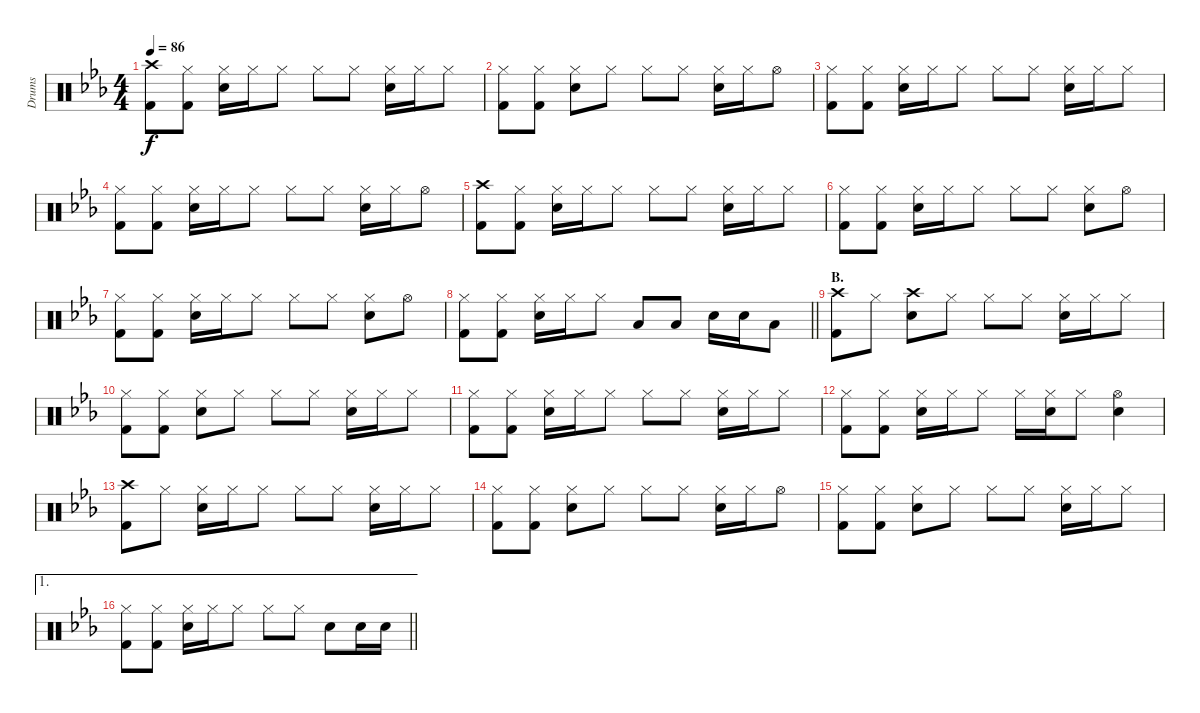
\track ("Drums" "Drums") {instrument percussion}
\staff {score}
\articulation defaults
\ts (4 4)
\tempo 86
\clef neutral
\ks eb
("Crash high (hit)" "Kick (hit) 2").8{dy f} ("Hi-Hat (closed)" "Kick (hit) 2").8 ("Hi-Hat (closed)" "Snare (hit) 2").16 "Hi-Hat (closed)".16 "Hi-Hat (closed)".8 "Hi-Hat (closed)".8 "Hi-Hat (closed)".8 ("Hi-Hat (closed)" "Snare (hit) 2").16 "Hi-Hat (closed)".16 "Hi-Hat (closed)".8 |
("Hi-Hat (closed)" "Kick (hit) 2").8 ("Hi-Hat (closed)" "Kick (hit) 2").8 ("Hi-Hat (closed)" "Snare (hit) 2").8 "Hi-Hat (closed)".8 "Hi-Hat (closed)".8 "Hi-Hat (closed)".8 ("Hi-Hat (closed)" "Snare (hit) 2").16 "Hi-Hat (closed)".16 "Hi-Hat (open)".8 |
("Hi-Hat (closed)" "Kick (hit) 2").8 ("Hi-Hat (closed)" "Kick (hit) 2").8 ("Hi-Hat (closed)" "Snare (hit) 2").16 "Hi-Hat (closed)".16 "Hi-Hat (closed)".8 "Hi-Hat (closed)".8 "Hi-Hat (closed)".8 ("Hi-Hat (closed)" "Snare (hit) 2").16 "Hi-Hat (closed)".16 "Hi-Hat (closed)".8 |
("Hi-Hat (closed)" "Kick (hit) 2").8 ("Hi-Hat (closed)" "Kick (hit) 2").8 ("Hi-Hat (closed)" "Snare (hit) 2").16 "Hi-Hat (closed)".16 "Hi-Hat (closed)".8 "Hi-Hat (closed)".8 "Hi-Hat (closed)".8 ("Hi-Hat (closed)" "Snare (hit) 2").16 "Hi-Hat (closed)".16 "Hi-Hat (open)".8 |
("Crash high (hit)" "Kick (hit) 2").8 ("Hi-Hat (closed)" "Kick (hit) 2").8 ("Hi-Hat (closed)" "Snare (hit) 2").16 "Hi-Hat (closed)".16 "Hi-Hat (closed)".8 "Hi-Hat (closed)".8 "Hi-Hat (closed)".8 ("Hi-Hat (closed)" "Snare (hit) 2").16 "Hi-Hat (closed)".16 "Hi-Hat (closed)".8 |
("Hi-Hat (closed)" "Kick (hit) 2").8 ("Hi-Hat (closed)" "Kick (hit) 2").8 ("Hi-Hat (closed)" "Snare (hit) 2").16 "Hi-Hat (closed)".16 "Hi-Hat (closed)".8 "Hi-Hat (closed)".8 "Hi-Hat (closed)".8 ("Hi-Hat (closed)" "Snare (hit) 2").8 "Hi-Hat (open)".8 |
("Hi-Hat (closed)" "Kick (hit) 2").8 ("Hi-Hat (closed)" "Kick (hit) 2").8 ("Hi-Hat (closed)" "Snare (hit) 2").16 "Hi-Hat (closed)".16 "Hi-Hat (closed)".8 "Hi-Hat (closed)".8 "Hi-Hat (closed)".8 ("Hi-Hat (closed)" "Snare (hit) 2").8 "Hi-Hat (open)".8 |
\barLineRight lightlight
("Hi-Hat (closed)" "Kick (hit) 2").8 ("Hi-Hat (closed)" "Kick (hit) 2").8 ("Hi-Hat (closed)" "Snare (hit) 2").16 "Hi-Hat (closed)".16 "Hi-Hat (closed)".8 "Low Tom (hit)".8 "Low Tom (hit)".8 "Snare (hit) 2".16 "Snare (hit) 2".16 "Low Tom (hit)".8 |
\section ("" "B.")
("Crash high (hit)" "Kick (hit) 2").8 "Hi-Hat (closed)".8 ("Crash high (hit)" "Snare (hit) 2").8 "Hi-Hat (closed)".8 "Hi-Hat (closed)".8 "Hi-Hat (closed)".8 ("Hi-Hat (closed)" "Snare (hit) 2").16 "Hi-Hat (closed)".16 "Hi-Hat (closed)".8 |
("Hi-Hat (closed)" "Kick (hit) 2").8 ("Hi-Hat (closed)" "Kick (hit) 2").8 ("Hi-Hat (closed)" "Snare (hit) 2").8 "Hi-Hat (closed)".8 "Hi-Hat (closed)".8 "Hi-Hat (closed)".8 ("Hi-Hat (closed)" "Snare (hit) 2").16 "Hi-Hat (closed)".16 "Hi-Hat (closed)".8 |
("Hi-Hat (closed)" "Kick (hit) 2").8 ("Hi-Hat (closed)" "Kick (hit) 2").8 ("Hi-Hat (closed)" "Snare (hit) 2").16 "Hi-Hat (closed)".16 "Hi-Hat (closed)".8 "Hi-Hat (closed)".8 "Hi-Hat (closed)".8 ("Hi-Hat (closed)" "Snare (hit) 2").16 "Hi-Hat (closed)".16 "Hi-Hat (closed)".8 |
("Hi-Hat (closed)" "Kick (hit) 2").8 ("Hi-Hat (closed)" "Kick (hit) 2").8 ("Hi-Hat (closed)" "Snare (hit) 2").16 "Hi-Hat (closed)".16 "Hi-Hat (closed)".8 "Hi-Hat (closed)".16 ("Hi-Hat (closed)" "Snare (hit) 2").16 "Hi-Hat (closed)".8 ("Hi-Hat (open)" "Snare (hit) 2").4 |
("Crash high (hit)" "Kick (hit) 2").8 "Hi-Hat (closed)".8 ("Hi-Hat (closed)" "Snare (hit) 2").16 "Hi-Hat (closed)".16 "Hi-Hat (closed)".8 "Hi-Hat (closed)".8 "Hi-Hat (closed)".8 ("Hi-Hat (closed)" "Snare (hit) 2").16 "Hi-Hat (closed)".16 "Hi-Hat (closed)".8 |
("Hi-Hat (closed)" "Kick (hit) 2").8 ("Hi-Hat (closed)" "Kick (hit) 2").8 ("Hi-Hat (closed)" "Snare (hit) 2").8 "Hi-Hat (closed)".8 "Hi-Hat (closed)".8 "Hi-Hat (closed)".8 ("Hi-Hat (closed)" "Snare (hit) 2").16 "Hi-Hat (closed)".16 "Hi-Hat (open)".8 |
("Hi-Hat (closed)" "Kick (hit) 2").8 ("Hi-Hat (closed)" "Kick (hit) 2").8 ("Hi-Hat (closed)" "Snare (hit) 2").8 "Hi-Hat (closed)".8 "Hi-Hat (closed)".8 "Hi-Hat (closed)".8 ("Hi-Hat (closed)" "Snare (hit) 2").16 "Hi-Hat (closed)".16 "Hi-Hat (closed)".8 |
\ae 1
\barLineRight lightlight
("Hi-Hat (closed)" "Kick (hit) 2").8 ("Hi-Hat (closed)" "Kick (hit) 2").8 ("Hi-Hat (closed)" "Snare (hit) 2").16 "Hi-Hat (closed)".16 "Hi-Hat (closed)".8 "Hi-Hat (closed)".8 "Hi-Hat (closed)".8 "Snare (hit) 2".8 "Snare (hit) 2".16 "Snare (hit) 2".16
